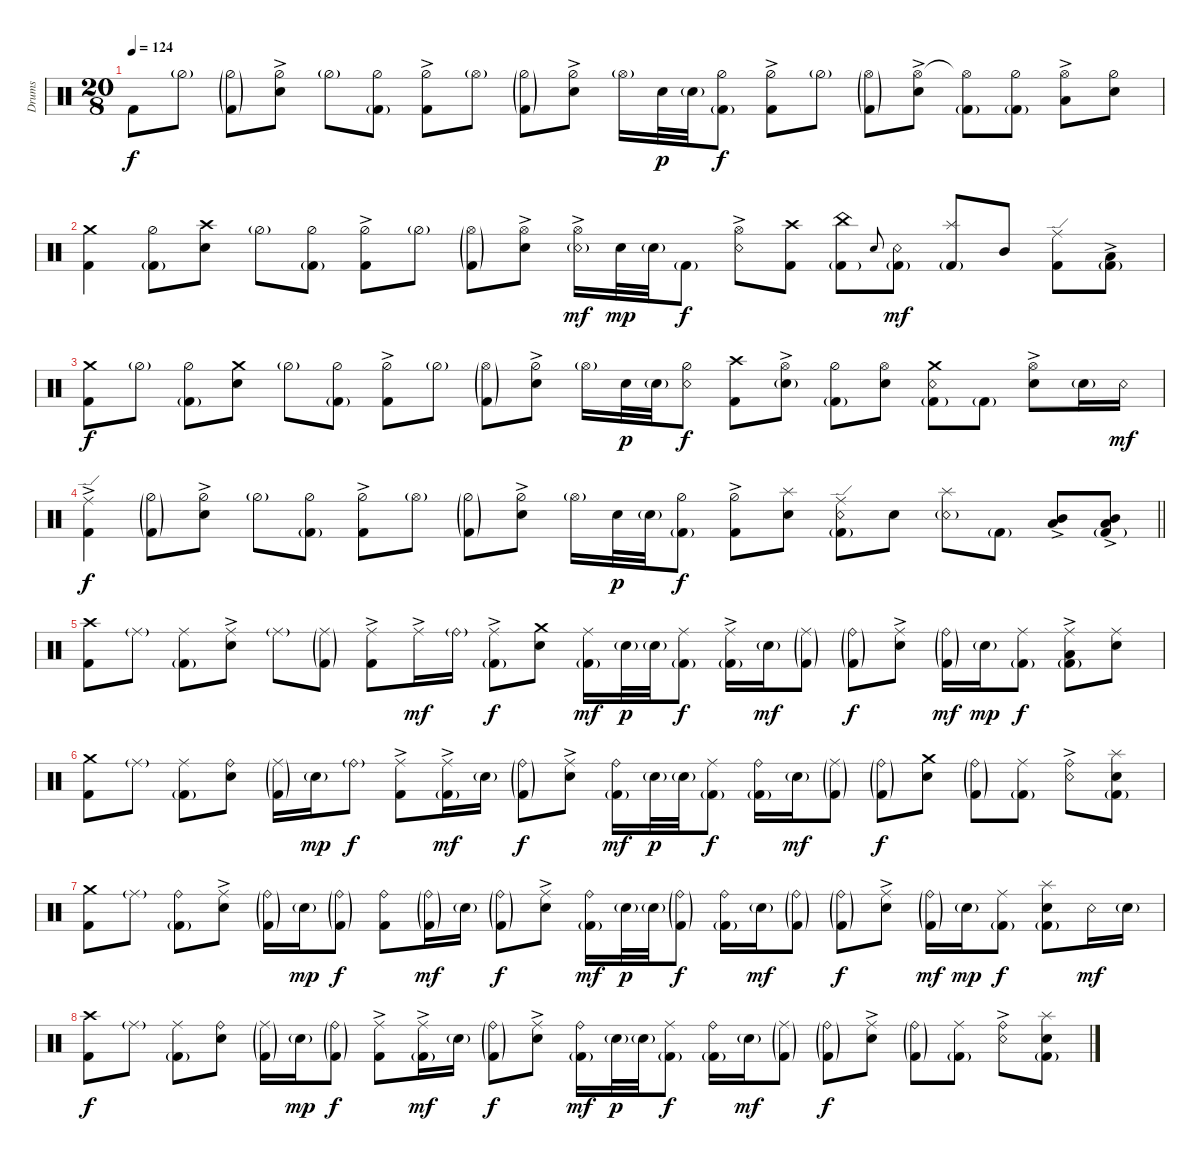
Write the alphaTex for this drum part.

\bracketExtendMode groupsimilarinstruments
\otherSystemsTrackNameOrientation horizontal
\track ("Drumkit" "Drums") {instrument percussion}
\staff {score}
\articulation defaults
\ts (20 8)
\tempo 124
\clef neutral
\ks c "Kick (hit) 2".8{dy f beam Down} "Hi-Hat (half)"{g}.8{beam Down}
("Kick (hit) 2"{g} "Hi-Hat (half)"{g}).8{beam Down} ("Snare (hit) 2" "Hi-Hat (half)"{ac}).8{beam Down} "Hi-Hat (half)"{g}.8{beam Down} ("Kick (hit) 2"{g} "Hi-Hat (half)").8{beam Down} ("Kick (hit) 2" "Hi-Hat (half)"{ac}).8{beam Down} "Hi-Hat (open)"{g}.8{beam Down} ("Kick (hit) 2"{g} "Hi-Hat (half)"{g}).8{beam Down} ("Snare (hit) 2" "Hi-Hat (half)"{ac}).8{beam Down} "Hi-Hat (open)"{g}.16{beam Down} "Snare (hit) 2".32{dy p beam Down} "Snare (hit) 2"{g}.32{beam Down} ("Kick (hit) 2"{g} "Hi-Hat (half)").8{dy f beam Down} ("Kick (hit) 2" "Hi-Hat (half)"{ac}).8{beam Down} "Hi-Hat (half)"{g}.8{beam Down} ("Kick (hit) 2"{g} "Hi-Hat (open)"{g}).8{beam Down} ("Snare (hit) 2" "Hi-Hat (open)"{ac}).8{beam Down} ("Kick (hit) 2"{g} "Hi-Hat (open)"{t}).8{beam Down} ("Hi-Hat (half)" "Kick (hit) 2"{g}).8{beam Down} ("Low Tom (hit)"{ac} "Hi-Hat (open)").8{beam Down} ("Snare (hit) 2" "Hi-Hat (half)").8{beam Down} |
("Kick (hit) 2" "Crash medium (hit)").4{beam Down} ("Kick (hit) 2"{g} "Hi-Hat (half)").8{beam Down} ("Snare (hit) 2" "Crash high (hit)").8{beam Down} "Hi-Hat (half)"{g}.8{beam Down} ("Kick (hit) 2"{g} "Hi-Hat (half)").8{beam Down} ("Kick (hit) 2" "Hi-Hat (half)"{ac}).8{beam Down} "Hi-Hat (half)"{g}.8{beam Down} ("Kick (hit) 2"{g} "Hi-Hat (open)"{g}).8{beam Down} ("Snare (hit) 2" "Hi-Hat (open)"{ac}).8{beam Down} ("Hi-Hat (open)"{ac} "Snare (rim shot)"{g}).16{dy mf beam Down} "Snare (hit) 2".32{dy mp beam Down} "Snare (hit) 2"{g}.32{beam Down} "Kick (hit) 2"{g}.8{dy f beam Down} ("Hi-Hat (open)"{ac} "Snare (rim shot)").8{beam Down} ("Kick (hit) 2" "Crash high (hit)").8{beam Down} ("Kick (hit) 2"{g} "China (hit)").8{beam Down} "Snare (hit) 2".8{gr onbeat beam Up} ("Kick (hit) 2"{g} "Snare (rim shot)").8{dy mf beam Up} ("Kick (hit) 2"{g} "Splash (hit)").8{beam Up} "Mid Tom (hit)".8{beam Up} ("Ride (edge)" "Kick (hit) 2").8{beam Down} ("Low Tom (hit)"{ac} "Kick (hit) 2"{g}).8{beam Down} |
("Kick (hit) 2" "Crash medium (hit)").8{dy f beam Down} "Hi-Hat (half)"{g}.8{beam Down} ("Kick (hit) 2"{g} "Hi-Hat (half)").8{beam Down} ("Snare (hit) 2" "Crash medium (hit)").8{beam Down} "Hi-Hat (half)"{g}.8{beam Down} ("Kick (hit) 2"{g} "Hi-Hat (half)").8{beam Down} ("Kick (hit) 2" "Hi-Hat (half)"{ac}).8{beam Down} "Hi-Hat (half)"{g}.8{beam Down} ("Kick (hit) 2"{g} "Hi-Hat (open)"{g}).8{beam Down} ("Snare (hit) 2" "Hi-Hat (half)"{ac}).8{beam Down} "Hi-Hat (open)"{g}.16{beam Down} "Snare (hit) 2".32{dy p beam Down} "Snare (hit) 2"{g}.32{beam Down} ("Hi-Hat (half)" "Snare (rim shot)").8{dy f beam Down} ("Kick (hit) 2" "Crash high (hit)").8{beam Down} ("Hi-Hat (open)"{ac} "Snare (hit) 2"{g}).8{beam Down} ("Kick (hit) 2"{g} "Hi-Hat (half)").8{beam Down} ("Snare (hit) 2" "Hi-Hat (open)").8{beam Down} ("Kick (hit) 2"{g} "Snare (rim shot)" "Crash medium (hit)").8{beam Down} "Kick (hit) 2"{g}.8{beam Down} ("Snare (hit) 2" "Hi-Hat (open)"{ac}).8{beam Down} "Snare (hit) 2"{g}.16{beam Down} "Snare (rim shot)".16{dy mf beam Down} |
\barLineRight lightlight
("Kick (hit) 2" "Ride (edge)"{ac}).4{dy f beam Down} ("Kick (hit) 2"{g} "Hi-Hat (half)"{g}).8{beam Down} ("Snare (hit) 2" "Hi-Hat (half)"{ac}).8{beam Down} "Hi-Hat (half)"{g}.8{beam Down} ("Kick (hit) 2"{g} "Hi-Hat (half)").8{beam Down} ("Kick (hit) 2" "Hi-Hat (half)"{ac}).8{beam Down} "Hi-Hat (open)"{g}.8{beam Down} ("Kick (hit) 2"{g} "Hi-Hat (half)"{g}).8{beam Down} ("Snare (hit) 2" "Hi-Hat (half)"{ac}).8{beam Down} "Hi-Hat (open)"{g}.16{beam Down} "Snare (hit) 2".32{dy p beam Down} "Snare (hit) 2"{g}.32{beam Down} ("Kick (hit) 2"{g} "Hi-Hat (half)").8{dy f beam Down} ("Kick (hit) 2" "Hi-Hat (half)"{ac}).8{beam Down} ("Snare (hit) 2" "Splash (hit)").8{beam Down} ("Kick (hit) 2"{g} "Snare (rim shot)" "Ride (edge)").8{beam Down} "Snare (hit) 2".8{beam Down} ("Snare (rim shot)"{g} "Splash (hit)").8{beam Down} "Kick (hit) 2"{g}.8{beam Down} ("Mid Tom (hit)" "Low Tom (hit)"{ac}).8{beam Up} ("Kick (hit) 2"{g} "Mid Tom (hit)" "Low Tom (hit)"{ac}).8{beam Up} |
("Kick (hit) 2" "Crash high (hit)").8{beam Down} "Ride (middle)"{g}.8{beam Down} ("Ride (middle)" "Kick (hit) 2"{g}).8{beam Down} ("Ride (middle)"{ac} "Snare (hit) 2").8{beam Down} "Ride (middle)"{g}.8{beam Down} ("Ride (middle)"{g} "Kick (hit) 2"{g}).8{beam Down} ("Ride (middle)"{ac} "Kick (hit) 2").8{beam Down} "Ride (middle)"{ac}.16{dy mf beam Down} "Ride (bell)"{g}.16{beam Down} ("Ride (middle)"{ac} "Kick (hit) 2"{g}).8{dy f beam Down} ("Snare (hit) 2" "Crash medium (hit)").8{beam Down} ("Kick (hit) 2"{g} "Ride (middle)").16{dy mf beam Down} "Snare (hit) 2"{g}.32{dy p beam Down} "Snare (hit) 2"{g}.32{beam Down} ("Ride (middle)" "Kick (hit) 2"{g}).8{dy f beam Down} ("Ride (middle)"{ac} "Kick (hit) 2"{g}).16{beam Down} "Snare (hit) 2"{g}.16{dy mf beam Down} ("Ride (middle)"{g} "Kick (hit) 2"{g}).8{beam Down} ("Ride (bell)"{g} "Kick (hit) 2"{g}).8{dy f beam Down} ("Ride (middle)"{ac} "Snare (hit) 2").8{beam Down} ("Ride (bell)"{g} "Kick (hit) 2"{g}).16{dy mf beam Down} "Snare (hit) 2"{g}.16{dy mp beam Down} ("Ride (middle)" "Kick (hit) 2"{g}).8{dy f beam Down} ("Low Tom (hit)"{ac} "Kick (hit) 2"{g} "Ride (middle)").8{beam Down} ("Snare (hit) 2" "Ride (middle)").8{beam Down} |
("Kick (hit) 2" "Crash medium (hit)").8{beam Down} "Ride (middle)"{g}.8{beam Down} ("Ride (middle)" "Kick (hit) 2"{g}).8{beam Down} ("Ride (bell)" "Snare (hit) 2").8{beam Down} ("Ride (middle)"{g} "Kick (hit) 2"{g}).16{beam Down} "Snare (hit) 2"{g}.16{dy mp beam Down} "Ride (bell)"{g}.8{dy f beam Down} ("Ride (middle)"{ac} "Kick (hit) 2").8{beam Down} ("Ride (middle)"{ac} "Kick (hit) 2"{g}).16{dy mf beam Down} "Snare (hit) 2"{g}.16{beam Down} ("Ride (bell)"{g} "Kick (hit) 2"{g}).8{dy f beam Down} ("Ride (middle)"{ac} "Snare (hit) 2").8{beam Down} ("Ride (bell)" "Kick (hit) 2"{g}).16{dy mf beam Down} "Snare (hit) 2"{g}.32{dy p beam Down} "Snare (hit) 2"{g}.32{beam Down} ("Ride (middle)" "Kick (hit) 2"{g}).8{dy f beam Down} ("Ride (bell)" "Kick (hit) 2"{g}).16{beam Down} "Snare (hit) 2"{g}.16{dy mf beam Down} ("Ride (middle)"{g} "Kick (hit) 2"{g}).8{beam Down} ("Ride (bell)"{g} "Kick (hit) 2"{g}).8{dy f beam Down} ("Snare (hit) 2" "Crash medium (hit)").8{beam Down} ("Ride (bell)"{g} "Kick (hit) 2"{g}).8{beam Down} ("Ride (middle)" "Kick (hit) 2"{g}).8{beam Down} ("Ride (bell)"{ac} "Snare (rim shot)").8{beam Down} ("Snare (hit) 2" "Kick (hit) 2"{g} "Splash (hit)").8{beam Down} |
("Kick (hit) 2" "Crash medium (hit)").8{beam Down} "Ride (middle)"{g}.8{beam Down} ("Ride (bell)" "Kick (hit) 2"{g}).8{beam Down} ("Ride (middle)"{ac} "Snare (hit) 2").8{beam Down} ("Ride (bell)"{g} "Kick (hit) 2"{g}).16{beam Down} "Snare (hit) 2"{g}.16{dy mp beam Down} ("Ride (bell)"{g} "Kick (hit) 2"{g}).8{dy f beam Down} ("Ride (bell)" "Kick (hit) 2").8{beam Down} ("Ride (bell)"{g} "Kick (hit) 2"{g}).16{dy mf beam Down} "Snare (hit) 2"{g}.16{beam Down} ("Ride (bell)"{g} "Kick (hit) 2"{g}).8{dy f beam Down} ("Ride (middle)"{ac} "Snare (hit) 2").8{beam Down} ("Ride (bell)" "Kick (hit) 2"{g}).16{dy mf beam Down} "Snare (hit) 2"{g}.32{dy p beam Down} "Snare (hit) 2"{g}.32{beam Down} ("Ride (bell)"{g} "Kick (hit) 2"{g}).8{dy f beam Down} ("Ride (bell)" "Kick (hit) 2"{g}).16{beam Down} "Snare (hit) 2"{g}.16{dy mf beam Down} ("Ride (bell)"{g} "Kick (hit) 2"{g}).8{beam Down} ("Ride (bell)"{g} "Kick (hit) 2"{g}).8{dy f beam Down} ("Ride (middle)"{ac} "Snare (hit) 2").8{beam Down} ("Ride (bell)"{g} "Kick (hit) 2"{g}).16{dy mf beam Down} "Snare (hit) 2"{g}.16{dy mp beam Down} ("Ride (middle)" "Kick (hit) 2"{g}).8{dy f beam Down} ("Kick (hit) 2"{g} "Splash (hit)" "Snare (hit) 2").8{beam Down} "Snare (rim shot)".16{dy mf beam Down} "Snare (hit) 2"{g}.16{beam Down} |
("Kick (hit) 2" "Crash high (hit)").8{dy f beam Down} "Ride (middle)"{g}.8{beam Down} ("Ride (middle)" "Kick (hit) 2"{g}).8{beam Down} ("Ride (bell)" "Snare (hit) 2").8{beam Down} ("Ride (middle)"{g} "Kick (hit) 2"{g}).16{beam Down} "Snare (hit) 2"{g}.16{dy mp beam Down} ("Ride (bell)"{g} "Kick (hit) 2"{g}).8{dy f beam Down} ("Ride (middle)"{ac} "Kick (hit) 2").8{beam Down} ("Ride (middle)"{ac} "Kick (hit) 2"{g}).16{dy mf beam Down} "Snare (hit) 2"{g}.16{beam Down} ("Ride (bell)"{g} "Kick (hit) 2"{g}).8{dy f beam Down} ("Ride (middle)"{ac} "Snare (hit) 2").8{beam Down} ("Ride (bell)" "Kick (hit) 2"{g}).16{dy mf beam Down} "Snare (hit) 2"{g}.32{dy p beam Down} "Snare (hit) 2"{g}.32{beam Down} ("Ride (middle)" "Kick (hit) 2"{g}).8{dy f beam Down} ("Ride (bell)" "Kick (hit) 2"{g}).16{beam Down} "Snare (hit) 2"{g}.16{dy mf beam Down} ("Ride (middle)"{g} "Kick (hit) 2"{g}).8{beam Down} ("Ride (bell)"{g} "Kick (hit) 2"{g}).8{dy f beam Down} ("Ride (middle)"{ac} "Snare (hit) 2").8{beam Down} ("Ride (bell)"{g} "Kick (hit) 2"{g}).8{beam Down} ("Ride (middle)" "Kick (hit) 2"{g}).8{beam Down} ("Ride (bell)"{ac} "Snare (rim shot)").8{beam Down} ("Snare (hit) 2" "Kick (hit) 2"{g} "Splash (hit)").8{beam Down}
